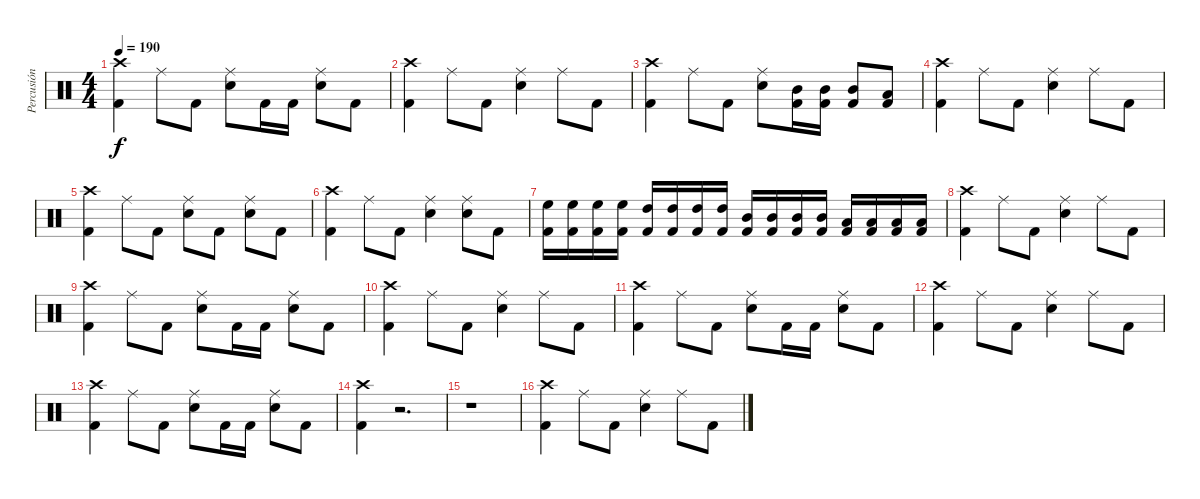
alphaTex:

\track ("Percusión" "Percusión") {instrument percussion}
\staff {score}
\articulation defaults
\ts (4 4)
\tempo 190
\clef neutral
\ks c
("Kick (hit) 2" "Crash high (hit)").4{dy f} "Ride (middle)".8 "Kick (hit) 2".8 ("Snare (hit) 2" "Ride (middle)").8 "Kick (hit) 2".16 "Kick (hit) 2".16 ("Snare (hit) 2" "Ride (middle)").8 "Kick (hit) 2".8 |
("Kick (hit) 2" "Crash high (hit)").4 "Ride (middle)".8 "Kick (hit) 2".8 ("Snare (hit) 2" "Ride (middle)").4 "Ride (middle)".8 "Kick (hit) 2".8 |
("Kick (hit) 2" "Crash high (hit)").4 "Ride (middle)".8 "Kick (hit) 2".8 ("Snare (hit) 2" "Ride (middle)").8 ("Kick (hit) 2" "Mid Tom (hit)").16 ("Kick (hit) 2" "Mid Tom (hit)").16 ("Kick (hit) 2" "Mid Tom (hit)").8 ("Kick (hit) 2" "Low Tom (hit)").8 |
("Kick (hit) 2" "Crash high (hit)").4 "Ride (middle)".8 "Kick (hit) 2".8 ("Snare (hit) 2" "Ride (middle)").4 "Ride (middle)".8 "Kick (hit) 2".8 |
("Kick (hit) 2" "Crash high (hit)").4 "Ride (middle)".8 "Kick (hit) 2".8 ("Snare (hit) 2" "Ride (middle)").8 "Kick (hit) 2".8 ("Snare (hit) 2" "Ride (middle)").8 "Kick (hit) 2".8 |
("Kick (hit) 2" "Crash high (hit)").4 "Ride (middle)".8 "Kick (hit) 2".8 ("Snare (hit) 2" "Ride (middle)").4 ("Snare (hit) 2" "Ride (middle)").8 "Kick (hit) 2".8 |
("Kick (hit) 2" "High Floor Tom (hit)").16 ("Kick (hit) 2" "High Floor Tom (hit)").16 ("Kick (hit) 2" "High Floor Tom (hit)").16 ("Kick (hit) 2" "High Floor Tom (hit)").16 ("Kick (hit) 2" "High Tom (hit)").16 ("Kick (hit) 2" "High Tom (hit)").16 ("Kick (hit) 2" "High Tom (hit)").16 ("Kick (hit) 2" "High Tom (hit)").16 ("Kick (hit) 2" "Mid Tom (hit)").16 ("Kick (hit) 2" "Mid Tom (hit)").16 ("Kick (hit) 2" "Mid Tom (hit)").16 ("Kick (hit) 2" "Mid Tom (hit)").16 ("Kick (hit) 2" "Low Tom (hit)").16 ("Kick (hit) 2" "Low Tom (hit)").16 ("Kick (hit) 2" "Low Tom (hit)").16 ("Kick (hit) 2" "Low Tom (hit)").16 |
("Kick (hit) 2" "Crash high (hit)").4 "Ride (middle)".8 "Kick (hit) 2".8 ("Snare (hit) 2" "Ride (middle)").4 "Ride (middle)".8 "Kick (hit) 2".8 |
("Kick (hit) 2" "Crash high (hit)").4 "Ride (middle)".8 "Kick (hit) 2".8 ("Snare (hit) 2" "Ride (middle)").8 "Kick (hit) 2".16 "Kick (hit) 2".16 ("Snare (hit) 2" "Ride (middle)").8 "Kick (hit) 2".8 |
("Kick (hit) 2" "Crash high (hit)").4 "Ride (middle)".8 "Kick (hit) 2".8 ("Snare (hit) 2" "Ride (middle)").4 "Ride (middle)".8 "Kick (hit) 2".8 |
("Kick (hit) 2" "Crash high (hit)").4 "Ride (middle)".8 "Kick (hit) 2".8 ("Snare (hit) 2" "Ride (middle)").8 "Kick (hit) 2".16 "Kick (hit) 2".16 ("Snare (hit) 2" "Ride (middle)").8 "Kick (hit) 2".8 |
("Kick (hit) 2" "Crash high (hit)").4 "Ride (middle)".8 "Kick (hit) 2".8 ("Snare (hit) 2" "Ride (middle)").4 "Ride (middle)".8 "Kick (hit) 2".8 |
("Kick (hit) 2" "Crash high (hit)").4 "Ride (middle)".8 "Kick (hit) 2".8 ("Snare (hit) 2" "Ride (middle)").8 "Kick (hit) 2".16 "Kick (hit) 2".16 ("Snare (hit) 2" "Ride (middle)").8 "Kick (hit) 2".8 |
("Kick (hit) 2" "Crash high (hit)").4 r.2{d} |
r.1 |
("Kick (hit) 2" "Crash high (hit)").4 "Ride (middle)".8 "Kick (hit) 2".8 ("Snare (hit) 2" "Ride (middle)").4 "Ride (middle)".8 "Kick (hit) 2".8
